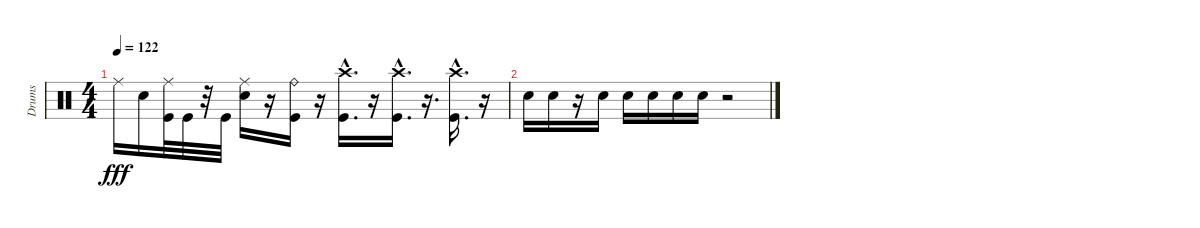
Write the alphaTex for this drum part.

\track ("Drums" "Drums") {instrument percussion}
\staff {score}
\articulation defaults
\ts (4 4)
\tempo 122
\clef neutral
\ks c "Ride (middle)".16{dy fff volume 2} "Snare (hit) 2".16
("Ride (middle)" "Kick (hit)").32 "Kick (hit)".32{volume 2} r.32 "Kick (hit)".32 ("Snare (hit) 2" "Ride (middle)").16 r.16 ("Kick (hit)" "Ride (bell)").16{volume 2} r.16 ("Crash high (hit)"{hac} "Kick (hit)"{hac}).16{d} r.16 ("Crash high (hit)"{hac} "Kick (hit)"{hac}).16{d volume 1} r.16{d} ("Crash high (hit)"{hac} "Kick (hit)"{hac}).16{d volume 1} r.16 |
"Snare (hit) 2".16{volume 1} "Snare (hit) 2".16 r.16 "Snare (hit) 2".16{volume 0} "Snare (hit) 2".16 "Snare (hit) 2".16{volume 0} "Snare (hit) 2".16 "Snare (hit) 2".16 r.2
